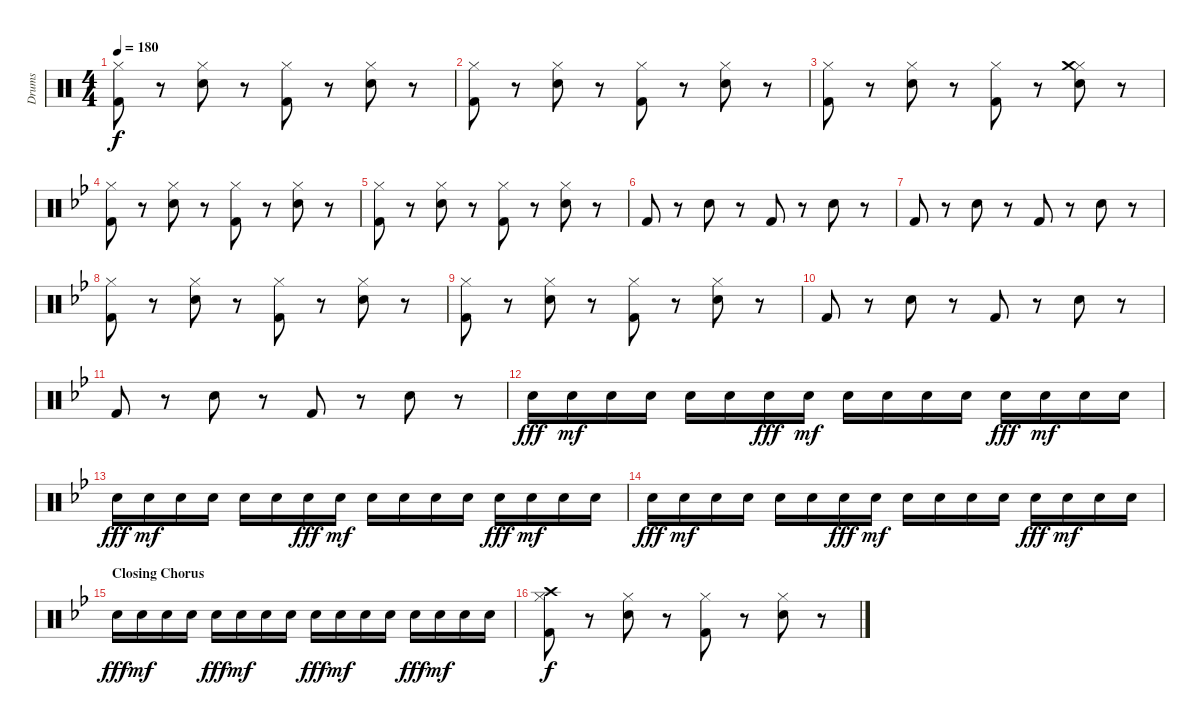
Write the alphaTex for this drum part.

\track ("Drums" "Drums") {instrument percussion}
\staff {score}
\articulation defaults
\ts (4 4)
\tempo 180
\clef neutral
\ks c
("Hi-Hat (closed)" "Kick (hit) 2").8{dy f} r.8 ("Hi-Hat (closed)" "Electric Snare (hit)").8 r.8 ("Hi-Hat (closed)" "Kick (hit) 2").8 r.8 ("Hi-Hat (closed)" "Electric Snare (hit)").8 r.8 |
("Hi-Hat (closed)" "Kick (hit) 2").8 r.8 ("Hi-Hat (closed)" "Electric Snare (hit)").8 r.8 ("Hi-Hat (closed)" "Kick (hit) 2").8 r.8 ("Hi-Hat (closed)" "Electric Snare (hit)").8 r.8 |
("Hi-Hat (closed)" "Kick (hit) 2").8 r.8 ("Hi-Hat (closed)" "Electric Snare (hit)").8 r.8 ("Hi-Hat (closed)" "Kick (hit) 2").8 r.8 ("Hi-Hat (closed)" "Electric Snare (hit)" "Crash medium (hit)").8 r.8 |
\ks bb
("Hi-Hat (closed)" "Kick (hit) 2").8 r.8 ("Hi-Hat (closed)" "Electric Snare (hit)").8 r.8 ("Hi-Hat (closed)" "Kick (hit) 2").8 r.8 ("Hi-Hat (closed)" "Electric Snare (hit)").8 r.8 |
("Hi-Hat (closed)" "Kick (hit) 2").8 r.8 ("Hi-Hat (closed)" "Electric Snare (hit)").8 r.8 ("Hi-Hat (closed)" "Kick (hit) 2").8 r.8 ("Hi-Hat (closed)" "Electric Snare (hit)").8 r.8 |
"Kick (hit) 2".8 r.8 "Electric Snare (hit)".8 r.8 "Kick (hit) 2".8 r.8 "Electric Snare (hit)".8 r.8 |
"Kick (hit) 2".8 r.8 "Electric Snare (hit)".8 r.8 "Kick (hit) 2".8 r.8 "Electric Snare (hit)".8 r.8 |
("Hi-Hat (closed)" "Kick (hit) 2").8 r.8 ("Hi-Hat (closed)" "Electric Snare (hit)").8 r.8 ("Hi-Hat (closed)" "Kick (hit) 2").8 r.8 ("Hi-Hat (closed)" "Electric Snare (hit)").8 r.8 |
("Hi-Hat (closed)" "Kick (hit) 2").8 r.8 ("Hi-Hat (closed)" "Electric Snare (hit)").8 r.8 ("Hi-Hat (closed)" "Kick (hit) 2").8 r.8 ("Hi-Hat (closed)" "Electric Snare (hit)").8 r.8 |
"Kick (hit) 2".8 r.8 "Electric Snare (hit)".8 r.8 "Kick (hit) 2".8 r.8 "Electric Snare (hit)".8 r.8 |
"Kick (hit) 2".8 r.8 "Electric Snare (hit)".8 r.8 "Kick (hit) 2".8 r.8 "Electric Snare (hit)".8 r.8 |
"Electric Snare (hit)".16{dy fff} "Electric Snare (hit)".16{dy mf} "Electric Snare (hit)".16 "Electric Snare (hit)".16 "Electric Snare (hit)".16 "Electric Snare (hit)".16 "Electric Snare (hit)".16{dy fff} "Electric Snare (hit)".16{dy mf} "Electric Snare (hit)".16 "Electric Snare (hit)".16 "Electric Snare (hit)".16 "Electric Snare (hit)".16 "Electric Snare (hit)".16{dy fff} "Electric Snare (hit)".16{dy mf} "Electric Snare (hit)".16 "Electric Snare (hit)".16 |
"Electric Snare (hit)".16{dy fff} "Electric Snare (hit)".16{dy mf} "Electric Snare (hit)".16 "Electric Snare (hit)".16 "Electric Snare (hit)".16 "Electric Snare (hit)".16 "Electric Snare (hit)".16{dy fff} "Electric Snare (hit)".16{dy mf} "Electric Snare (hit)".16 "Electric Snare (hit)".16 "Electric Snare (hit)".16 "Electric Snare (hit)".16 "Electric Snare (hit)".16{dy fff} "Electric Snare (hit)".16{dy mf} "Electric Snare (hit)".16 "Electric Snare (hit)".16 |
"Electric Snare (hit)".16{dy fff} "Electric Snare (hit)".16{dy mf} "Electric Snare (hit)".16 "Electric Snare (hit)".16 "Electric Snare (hit)".16 "Electric Snare (hit)".16 "Electric Snare (hit)".16{dy fff} "Electric Snare (hit)".16{dy mf} "Electric Snare (hit)".16 "Electric Snare (hit)".16 "Electric Snare (hit)".16 "Electric Snare (hit)".16 "Electric Snare (hit)".16{dy fff} "Electric Snare (hit)".16{dy mf} "Electric Snare (hit)".16 "Electric Snare (hit)".16 |
\section ("" "Closing Chorus")
"Electric Snare (hit)".16{dy fff} "Electric Snare (hit)".16{dy mf} "Electric Snare (hit)".16 "Electric Snare (hit)".16 "Electric Snare (hit)".16{dy fff} "Electric Snare (hit)".16{dy mf} "Electric Snare (hit)".16 "Electric Snare (hit)".16 "Electric Snare (hit)".16{dy fff} "Electric Snare (hit)".16{dy mf} "Electric Snare (hit)".16 "Electric Snare (hit)".16 "Electric Snare (hit)".16{dy fff} "Electric Snare (hit)".16{dy mf} "Electric Snare (hit)".16 "Electric Snare (hit)".16 |
("Hi-Hat (closed)" "Kick (hit) 2" "Crash high (hit)").8{dy f} r.8 ("Hi-Hat (closed)" "Electric Snare (hit)").8 r.8 ("Hi-Hat (closed)" "Kick (hit) 2").8 r.8 ("Hi-Hat (closed)" "Electric Snare (hit)").8 r.8
